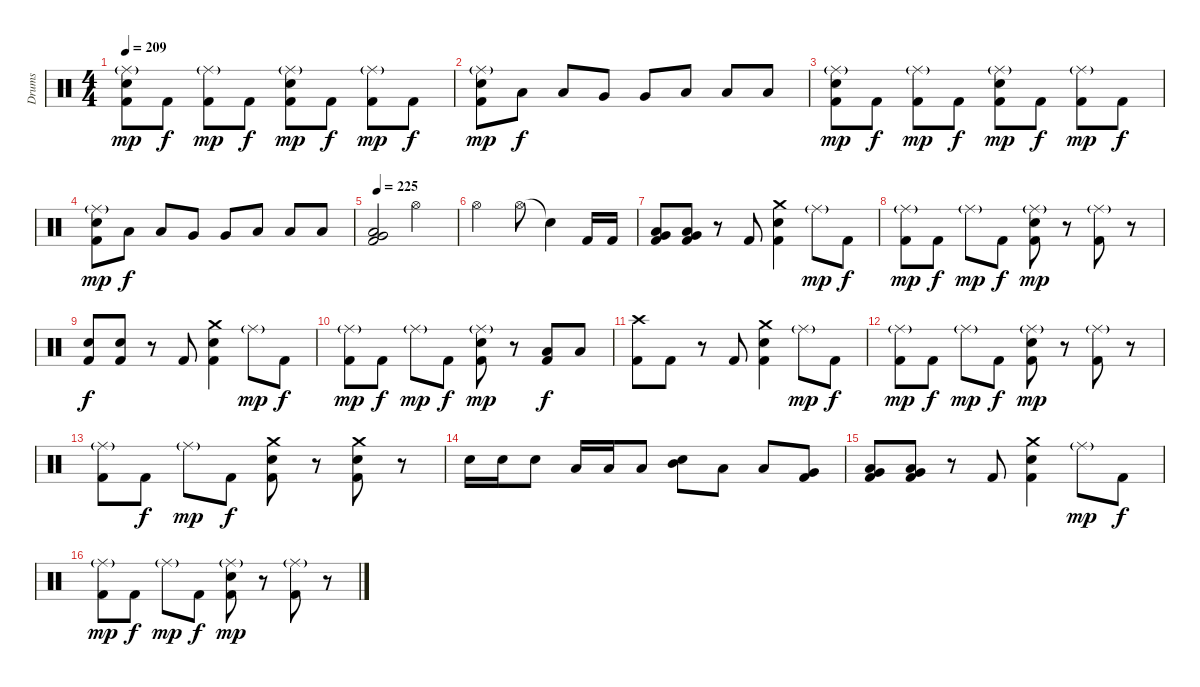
\track ("Drums" "Drums") {instrument percussion}
\staff {score}
\articulation defaults
\ts (4 4)
\tempo 209
\clef neutral
\ks c
("Ride (middle)"{g} "Snare (hit) 2" "Kick (hit) 2").8{dy mp} "Kick (hit) 2".8{dy f} ("Ride (middle)"{g} "Kick (hit) 2").8{dy mp} "Kick (hit) 2".8{dy f} ("Ride (middle)"{g} "Snare (hit) 2" "Kick (hit) 2").8{dy mp} "Kick (hit) 2".8{dy f} ("Ride (middle)"{g} "Kick (hit) 2").8{dy mp} "Kick (hit) 2".8{dy f} |
("Ride (middle)"{g} "Snare (hit) 2" "Kick (hit) 2").8{dy mp} "Low Tom (hit)".8{dy f} "Low Tom (hit)".8 "Very Low Tom (hit)".8 "Very Low Tom (hit)".8 "Low Floor Tom (hit)".8 "Low Floor Tom (hit)".8 "Low Floor Tom (hit)".8 |
("Ride (middle)"{g} "Snare (hit) 2" "Kick (hit) 2").8{dy mp} "Kick (hit) 2".8{dy f} ("Ride (middle)"{g} "Kick (hit) 2").8{dy mp} "Kick (hit) 2".8{dy f} ("Ride (middle)"{g} "Snare (hit) 2" "Kick (hit) 2").8{dy mp} "Kick (hit) 2".8{dy f} ("Ride (middle)"{g} "Kick (hit) 2").8{dy mp} "Kick (hit) 2".8{dy f} |
("Ride (middle)"{g} "Snare (hit) 2" "Kick (hit) 2").8{dy mp} "Low Tom (hit)".8{dy f} "Low Tom (hit)".8 "Very Low Tom (hit)".8 "Very Low Tom (hit)".8 "Low Floor Tom (hit)".8 "Low Floor Tom (hit)".8 "Low Floor Tom (hit)".8 |
\tempo 225
("Low Tom (hit)" "Very Low Tom (hit)" "Kick (hit) 2").2 "Hi-Hat (open)".2 |
"Hi-Hat (open)".2 "Hi-Hat (open)".8 "Snare (hit)"{t}.4 "Kick (hit) 2".16 "Kick (hit) 2".16 |
("Very Low Tom (hit)" "Low Tom (hit)" "Kick (hit) 2").8 ("Very Low Tom (hit)" "Low Tom (hit)" "Kick (hit) 2").8 r.8 "Kick (hit) 2".8 ("Crash medium (hit)" "Snare (hit) 2" "Kick (hit) 2").4 "Ride (middle)"{g}.8{dy mp} "Kick (hit) 2".8{dy f} |
("Ride (middle)"{g} "Kick (hit) 2").8{dy mp} "Kick (hit) 2".8{dy f} "Ride (middle)"{g}.8{dy mp} "Kick (hit) 2".8{dy f} ("Snare (hit) 2" "Ride (middle)"{g} "Kick (hit) 2").8{dy mp} r.8 ("Ride (middle)"{g} "Kick (hit) 2").8 r.8 |
("Snare (hit) 2" "Kick (hit) 2").8{dy f} ("Snare (hit) 2" "Kick (hit) 2").8 r.8 "Kick (hit) 2".8 ("Crash medium (hit)" "Snare (hit) 2" "Kick (hit) 2").4 "Ride (middle)"{g}.8{dy mp} "Kick (hit) 2".8{dy f} |
("Ride (middle)"{g} "Kick (hit) 2").8{dy mp} "Kick (hit) 2".8{dy f} "Ride (middle)"{g}.8{dy mp} "Kick (hit) 2".8{dy f} ("Snare (hit) 2" "Ride (middle)"{g} "Kick (hit) 2").8{dy mp} r.8 ("Low Tom (hit)" "Kick (hit) 2").8{dy f} "Low Tom (hit)".8 |
("Crash high (hit)" "Kick (hit) 2").8 "Kick (hit) 2".8 r.8 "Kick (hit) 2".8 ("Crash medium (hit)" "Snare (hit) 2" "Kick (hit) 2").4 "Ride (middle)"{g}.8{dy mp} "Kick (hit) 2".8{dy f} |
("Ride (middle)"{g} "Kick (hit) 2").8{dy mp} "Kick (hit) 2".8{dy f} "Ride (middle)"{g}.8{dy mp} "Kick (hit) 2".8{dy f} ("Snare (hit) 2" "Ride (middle)"{g} "Kick (hit) 2").8{dy mp} r.8 ("Ride (middle)"{g} "Kick (hit) 2").8 r.8 |
("Ride (middle)"{g} "Kick (hit) 2").8 "Kick (hit) 2".8{dy f} "Ride (middle)"{g}.8{dy mp} "Kick (hit) 2".8{dy f} ("Crash medium (hit)" "Snare (hit) 2" "Kick (hit) 2").8 r.8 ("Crash medium (hit)" "Snare (hit) 2" "Kick (hit) 2").8 r.8 |
"Snare (hit) 2".16 "Snare (hit) 2".16 "Snare (hit) 2".8 "Low Tom (hit)".16 "Low Tom (hit)".16 "Low Tom (hit)".8 ("Snare (hit) 2" "Mid Tom (hit)").8 "Low Tom (hit)".8 "Low Tom (hit)".8 ("Very Low Tom (hit)" "Kick (hit) 2").8 |
("Very Low Tom (hit)" "Low Tom (hit)" "Kick (hit) 2").8 ("Very Low Tom (hit)" "Low Tom (hit)" "Kick (hit) 2").8 r.8 "Kick (hit) 2".8 ("Crash medium (hit)" "Snare (hit) 2" "Kick (hit) 2").4 "Ride (middle)"{g}.8{dy mp} "Kick (hit) 2".8{dy f} |
("Ride (middle)"{g} "Kick (hit) 2").8{dy mp} "Kick (hit) 2".8{dy f} "Ride (middle)"{g}.8{dy mp} "Kick (hit) 2".8{dy f} ("Snare (hit) 2" "Ride (middle)"{g} "Kick (hit) 2").8{dy mp} r.8 ("Ride (middle)"{g} "Kick (hit) 2").8 r.8
